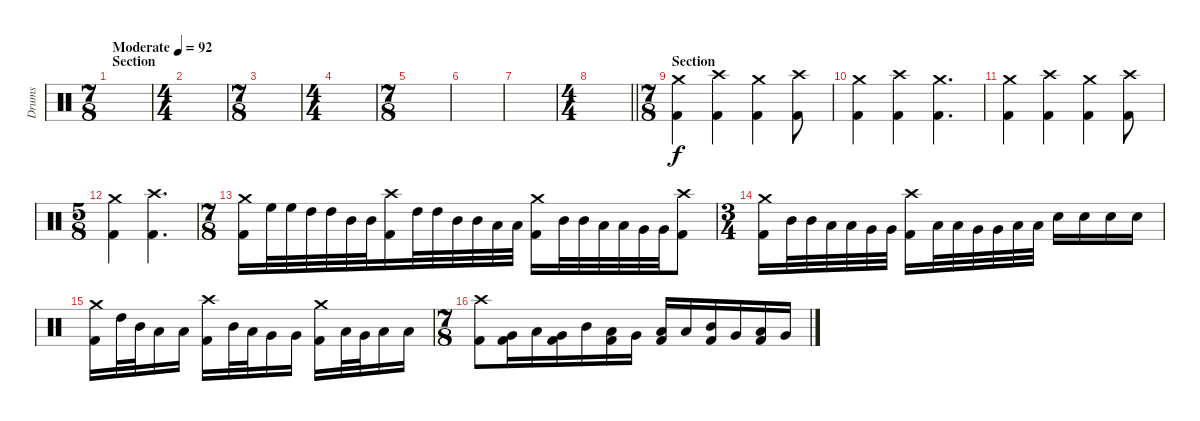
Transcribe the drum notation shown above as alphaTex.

\track ("Drums" "Drums") {instrument percussion}
\staff {score}
\articulation defaults
\ts (7 8)
\section ("" "Section")
\tempo (92 "Moderate")
\clef neutral
\ks c
|
\ts (4 4)
|
\ts (7 8)
|
\ts (4 4)
|
\ts (7 8)
|
|
|
\ts (4 4)
\barLineRight lightlight
|
\ts (7 8)
\section ("" "Section")
("Crash medium (hit)" "Kick (hit) 2").4 ("Crash high (hit)" "Kick (hit) 2").4 ("Crash medium (hit)" "Kick (hit) 2").4 ("Crash high (hit)" "Kick (hit) 2").8 |
("Crash medium (hit)" "Kick (hit) 2").4 ("Crash high (hit)" "Kick (hit) 2").4 ("Crash medium (hit)" "Kick (hit) 2").4{d} |
("Crash medium (hit)" "Kick (hit) 2").4 ("Crash high (hit)" "Kick (hit) 2").4 ("Crash medium (hit)" "Kick (hit) 2").4 ("Crash high (hit)" "Kick (hit) 2").8 |
\ts (5 8)
("Crash medium (hit)" "Kick (hit) 2").4 ("Crash high (hit)" "Kick (hit) 2").4{d} |
\ts (7 8)
("Crash medium (hit)" "Kick (hit) 2").16 "High Floor Tom (hit)".32 "High Floor Tom (hit)".32 "High Tom (hit)".32 "High Tom (hit)".32 "Mid Tom (hit)".32 "Mid Tom (hit)".32 ("Crash high (hit)" "Kick (hit) 2").16 "High Tom (hit)".32 "High Tom (hit)".32 "Mid Tom (hit)".32 "Mid Tom (hit)".32 "Low Tom (hit)".32 "Low Tom (hit)".32 ("Crash medium (hit)" "Kick (hit) 2").16 "Mid Tom (hit)".32 "Mid Tom (hit)".32 "Low Tom (hit)".32 "Low Tom (hit)".32 "Very Low Tom (hit)".32 "Very Low Tom (hit)".32 ("Crash high (hit)" "Kick (hit) 2").8 |
\ts (3 4)
("Crash medium (hit)" "Kick (hit) 2").16 "Mid Tom (hit)".32 "Mid Tom (hit)".32 "Low Tom (hit)".32 "Low Tom (hit)".32 "Very Low Tom (hit)".32 "Very Low Tom (hit)".32 ("Crash high (hit)" "Kick (hit) 2").16 "Low Tom (hit)".32 "Low Tom (hit)".32 "Very Low Tom (hit)".32 "Very Low Tom (hit)".32 "Low Floor Tom (hit)".32 "Low Floor Tom (hit)".32 "Snare (hit) 2".16 "Snare (hit) 2".16 "Snare (hit) 2".16 "Snare (hit) 2".16 |
("Crash medium (hit)" "Kick (hit) 2").16 "High Tom (hit)".32 "Mid Tom (hit)".32 "Low Tom (hit)".16 "Low Tom (hit)".16 ("Crash high (hit)" "Kick (hit) 2").16 "Mid Tom (hit)".32 "Low Tom (hit)".32 "Very Low Tom (hit)".16 "Very Low Tom (hit)".16 ("Crash medium (hit)" "Kick (hit) 2").16 "Low Tom (hit)".32 "Very Low Tom (hit)".32 "Low Floor Tom (hit)".16 "Low Floor Tom (hit)".16 |
\ts (7 8)
("Crash high (hit)" "Kick (hit) 2").8 ("Very Low Tom (hit)" "Kick (hit) 2").16 "Low Tom (hit)".16 ("Very Low Tom (hit)" "Kick (hit) 2").16 "Mid Tom (hit)".16 ("Low Tom (hit)" "Kick (hit) 2").16 "Very Low Tom (hit)".16 ("Low Tom (hit)" "Kick (hit) 2").16 "Low Floor Tom (hit)".16 ("Mid Tom (hit)" "Kick (hit) 2").16 "Very Low Tom (hit)".16 ("Low Tom (hit)" "Kick (hit) 2").16 "Very Low Tom (hit)".16
